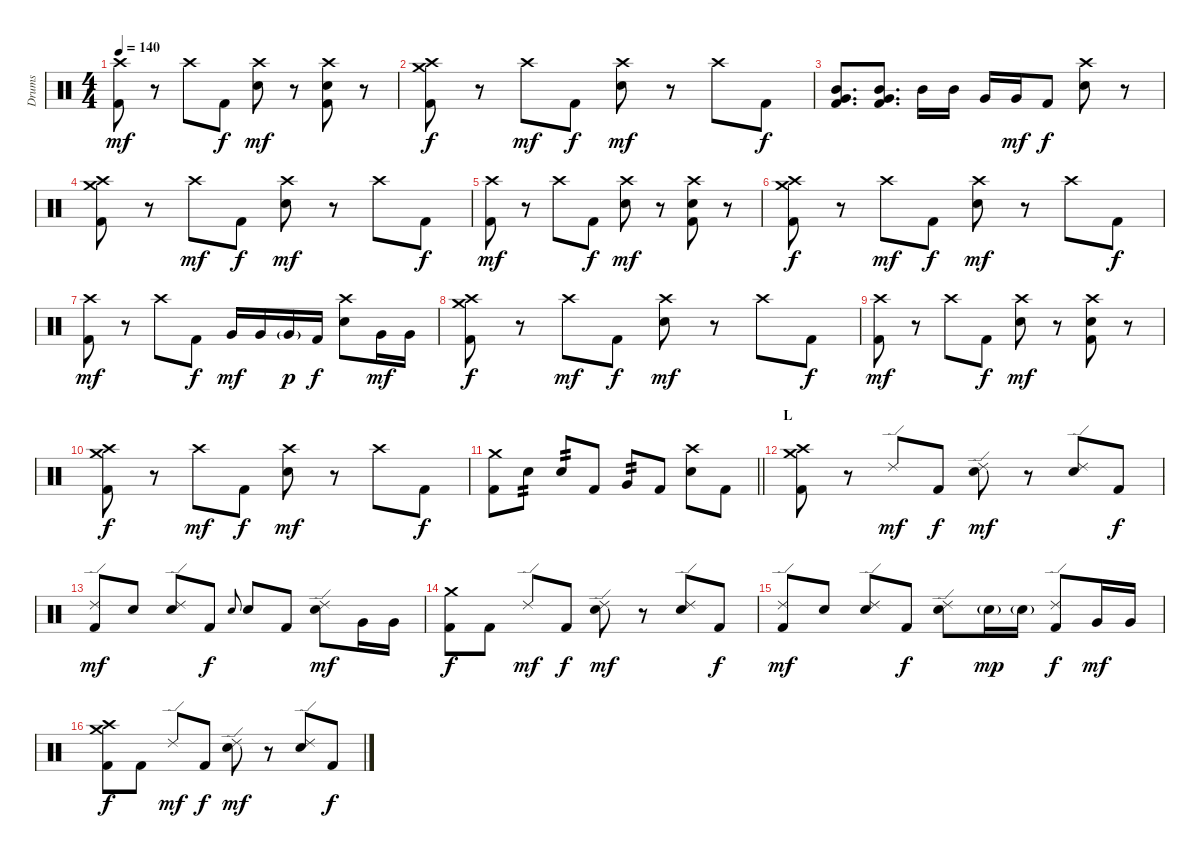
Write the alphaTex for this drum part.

\track ("Drums" "Drums") {instrument percussion}
\staff {score}
\articulation defaults
\ts (4 4)
\tempo 140
\clef neutral
\ks c
("Crash high (hit)" "Kick (hit) 2").8{dy mf} r.8 "Crash high (hit)".8 "Kick (hit) 2".8{dy f} ("Crash high (hit)" "Snare (hit) 2").8{dy mf} r.8 ("Crash high (hit)" "Snare (hit) 2" "Kick (hit) 2").8 r.8 |
("Crash high (hit)" "Crash medium (hit)" "Kick (hit) 2").8{dy f} r.8 "Crash high (hit)".8{dy mf} "Kick (hit) 2".8{dy f} ("Crash high (hit)" "Snare (hit) 2").8{dy mf} r.8 "Crash high (hit)".8 "Kick (hit) 2".8{dy f} |
("Mid Tom (hit)" "Very Low Tom (hit)" "Kick (hit) 2").8{d bu 60} ("Mid Tom (hit)" "Very Low Tom (hit)" "Kick (hit) 2").8{d bu 60} "Mid Tom (hit)".16 "Mid Tom (hit)".16 "Very Low Tom (hit)".16 "Very Low Tom (hit)".16{dy mf} "Kick (hit) 2".8{dy f} ("Crash high (hit)" "Snare (hit) 2").8 r.8 |
("Crash high (hit)" "Crash medium (hit)" "Kick (hit) 2").8 r.8 "Crash high (hit)".8{dy mf} "Kick (hit) 2".8{dy f} ("Crash high (hit)" "Snare (hit) 2").8{dy mf} r.8 "Crash high (hit)".8 "Kick (hit) 2".8{dy f} |
("Crash high (hit)" "Kick (hit) 2").8{dy mf} r.8 "Crash high (hit)".8 "Kick (hit) 2".8{dy f} ("Crash high (hit)" "Snare (hit) 2").8{dy mf} r.8 ("Crash high (hit)" "Snare (hit) 2" "Kick (hit) 2").8 r.8 |
("Crash high (hit)" "Crash medium (hit)" "Kick (hit) 2").8{dy f} r.8 "Crash high (hit)".8{dy mf} "Kick (hit) 2".8{dy f} ("Crash high (hit)" "Snare (hit) 2").8{dy mf} r.8 "Crash high (hit)".8 "Kick (hit) 2".8{dy f} |
("Crash high (hit)" "Kick (hit) 2").8{dy mf} r.8 "Crash high (hit)".8 "Kick (hit) 2".8{dy f} "Very Low Tom (hit)".16{dy mf} "Very Low Tom (hit)".16 "Very Low Tom (hit)"{g}.16{dy p} "Kick (hit) 2".16{dy f} ("Crash high (hit)" "Snare (hit) 2").8 "Very Low Tom (hit)".16{dy mf} "Very Low Tom (hit)".16 |
("Crash high (hit)" "Crash medium (hit)" "Kick (hit) 2").8{dy f} r.8 "Crash high (hit)".8{dy mf} "Kick (hit) 2".8{dy f} ("Crash high (hit)" "Snare (hit) 2").8{dy mf} r.8 "Crash high (hit)".8 "Kick (hit) 2".8{dy f} |
("Crash high (hit)" "Kick (hit) 2").8{dy mf} r.8 "Crash high (hit)".8 "Kick (hit) 2".8{dy f} ("Crash high (hit)" "Snare (hit) 2").8{dy mf} r.8 ("Crash high (hit)" "Snare (hit) 2" "Kick (hit) 2").8 r.8 |
("Crash high (hit)" "Crash medium (hit)" "Kick (hit) 2").8{dy f} r.8 "Crash high (hit)".8{dy mf} "Kick (hit) 2".8{dy f} ("Crash high (hit)" "Snare (hit) 2").8{dy mf} r.8 "Crash high (hit)".8 "Kick (hit) 2".8{dy f} |
\barLineRight lightlight
("Crash medium (hit)" "Kick (hit) 2").8 "Snare (hit) 2".8{tp 2} "Snare (hit) 2".8{tp 2} "Kick (hit) 2".8 "Very Low Tom (hit)".8{tp 2} "Kick (hit) 2".8 ("Crash high (hit)" "Snare (hit) 2").8 "Kick (hit) 2".8 |
\section ("" "L")
("Crash medium (hit)" "Crash high (hit)" "Kick (hit) 2").8 r.8 "Ride (edge) 2".8{dy mf} "Kick (hit) 2".8{dy f} ("Ride (edge) 2" "Snare (hit) 2").8{dy mf} r.8 ("Ride (edge) 2" "Snare (hit) 2").8 "Kick (hit) 2".8{dy f} |
("Ride (edge) 2" "Kick (hit) 2").8{dy mf} "Snare (hit) 2".8 ("Ride (edge) 2" "Snare (hit) 2").8 "Kick (hit) 2".8{dy f} "Snare (hit) 2".8{gr onbeat} "Snare (hit) 2".8 "Kick (hit) 2".8 ("Ride (edge) 2" "Snare (hit) 2").8{dy mf} "Very Low Tom (hit)".16 "Very Low Tom (hit)".16 |
("Crash medium (hit)" "Kick (hit) 2").8{dy f} "Kick (hit) 2".8 "Ride (edge) 2".8{dy mf} "Kick (hit) 2".8{dy f} ("Ride (edge) 2" "Snare (hit) 2").8{dy mf} r.8 ("Ride (edge) 2" "Snare (hit) 2").8 "Kick (hit) 2".8{dy f} |
("Ride (edge) 2" "Kick (hit) 2").8{dy mf} "Snare (hit) 2".8 ("Ride (edge) 2" "Snare (hit) 2").8 "Kick (hit) 2".8{dy f} ("Ride (edge) 2" "Snare (hit) 2").8 "Snare (hit) 2"{g}.16{dy mp} "Snare (hit) 2"{g}.16 ("Ride (edge) 2" "Kick (hit) 2").8{dy f} "Very Low Tom (hit)".16{dy mf} "Very Low Tom (hit)".16 |
("Crash medium (hit)" "Crash high (hit)" "Kick (hit) 2").8{dy f} "Kick (hit) 2".8 "Ride (edge) 2".8{dy mf} "Kick (hit) 2".8{dy f} ("Ride (edge) 2" "Snare (hit) 2").8{dy mf} r.8 ("Ride (edge) 2" "Snare (hit) 2").8 "Kick (hit) 2".8{dy f}
